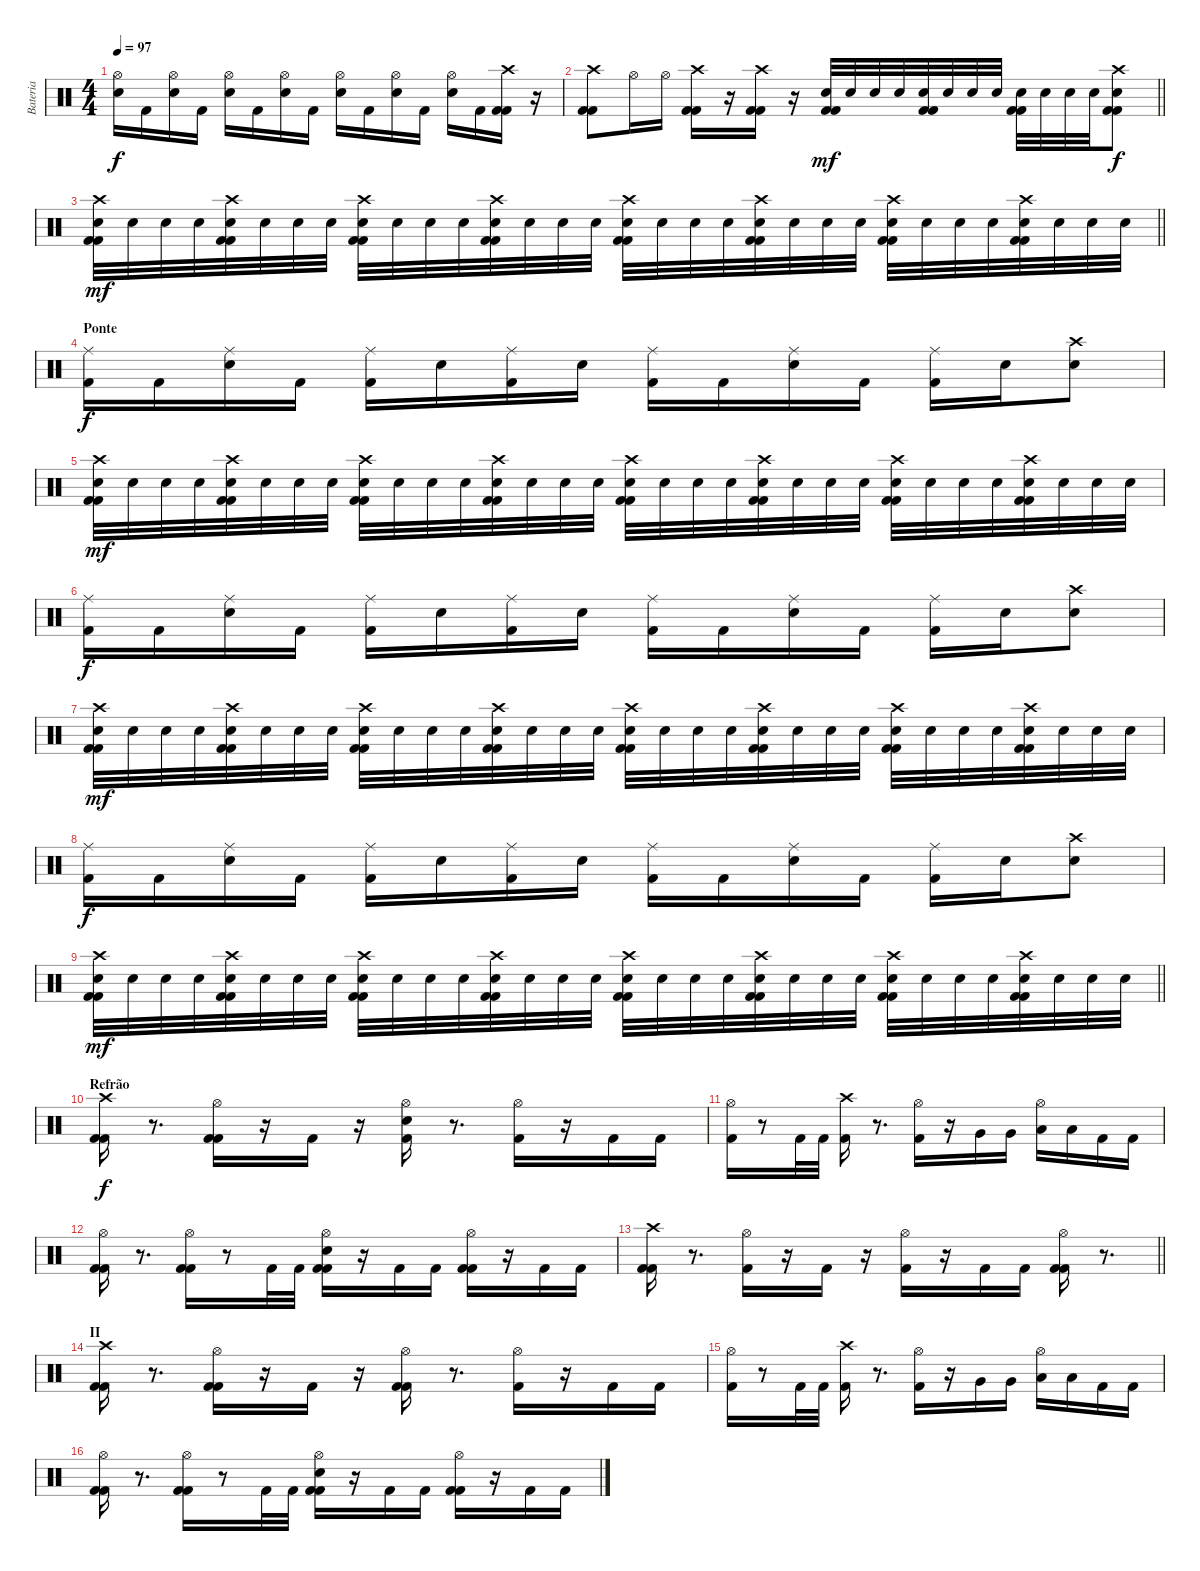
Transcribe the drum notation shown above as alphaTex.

\track ("Bateria" "Bateria") {instrument percussion}
\staff {score}
\articulation defaults
\ts (4 4)
\tempo 97
\clef neutral
\ks c
("Hi-Hat (open)" "Electric Snare (hit)").16{dy f} "Kick (hit) 2".16 ("Hi-Hat (open)" "Electric Snare (hit)").16 "Kick (hit) 2".16 ("Hi-Hat (open)" "Electric Snare (hit)").16 "Kick (hit) 2".16 ("Hi-Hat (open)" "Electric Snare (hit)").16 "Kick (hit) 2".16 ("Hi-Hat (open)" "Electric Snare (hit)").16 "Kick (hit) 2".16 ("Hi-Hat (open)" "Electric Snare (hit)").16 "Kick (hit) 2".16 ("Hi-Hat (open)" "Electric Snare (hit)").16 "Kick (hit) 2".16 ("Crash high (hit)" "Kick (hit) 2" "Kick (hit) 2").16 r.16 |
\barLineRight lightlight
("Crash high (hit)" "Kick (hit) 2" "Kick (hit) 2").8 "Hi-Hat (open)".16 "Hi-Hat (open)".16 ("Crash high (hit)" "Kick (hit) 2" "Kick (hit) 2").16 r.16 ("Crash high (hit)" "Kick (hit) 2" "Kick (hit) 2").16 r.16 ("Electric Snare (hit)" "Kick (hit) 2" "Kick (hit) 2").32{dy mf} "Electric Snare (hit)".32 "Electric Snare (hit)".32 "Electric Snare (hit)".32 ("Electric Snare (hit)" "Kick (hit) 2" "Kick (hit) 2").32 "Electric Snare (hit)".32 "Electric Snare (hit)".32 "Electric Snare (hit)".32 ("Electric Snare (hit)" "Kick (hit) 2" "Kick (hit) 2").32 "Electric Snare (hit)".32 "Electric Snare (hit)".32 "Electric Snare (hit)".32 ("Crash high (hit)" "Electric Snare (hit)" "Kick (hit) 2" "Kick (hit) 2").8{dy f} |
\barLineRight lightlight
("Crash high (hit)" "Electric Snare (hit)" "Kick (hit) 2" "Kick (hit) 2").32{dy mf} "Electric Snare (hit)".32 "Electric Snare (hit)".32 "Electric Snare (hit)".32 ("Crash high (hit)" "Electric Snare (hit)" "Kick (hit) 2" "Kick (hit) 2").32 "Electric Snare (hit)".32 "Electric Snare (hit)".32 "Electric Snare (hit)".32 ("Crash high (hit)" "Electric Snare (hit)" "Kick (hit) 2" "Kick (hit) 2").32 "Electric Snare (hit)".32 "Electric Snare (hit)".32 "Electric Snare (hit)".32 ("Crash high (hit)" "Electric Snare (hit)" "Kick (hit) 2" "Kick (hit) 2").32 "Electric Snare (hit)".32 "Electric Snare (hit)".32 "Electric Snare (hit)".32 ("Crash high (hit)" "Electric Snare (hit)" "Kick (hit) 2" "Kick (hit) 2").32 "Electric Snare (hit)".32 "Electric Snare (hit)".32 "Electric Snare (hit)".32 ("Crash high (hit)" "Electric Snare (hit)" "Kick (hit) 2" "Kick (hit) 2").32 "Electric Snare (hit)".32 "Electric Snare (hit)".32 "Electric Snare (hit)".32 ("Crash high (hit)" "Electric Snare (hit)" "Kick (hit) 2" "Kick (hit) 2").32 "Electric Snare (hit)".32 "Electric Snare (hit)".32 "Electric Snare (hit)".32 ("Crash high (hit)" "Electric Snare (hit)" "Kick (hit) 2" "Kick (hit) 2").32 "Electric Snare (hit)".32 "Electric Snare (hit)".32 "Electric Snare (hit)".32 |
\section ("" "Ponte")
("Ride (middle)" "Kick (hit) 2").16{dy f} "Kick (hit) 2".16 ("Ride (middle)" "Electric Snare (hit)").16 "Kick (hit) 2".16 ("Ride (middle)" "Kick (hit) 2").16 "Electric Snare (hit)".16 ("Ride (middle)" "Kick (hit) 2").16 "Electric Snare (hit)".16 ("Ride (middle)" "Kick (hit) 2").16 "Kick (hit) 2".16 ("Ride (middle)" "Electric Snare (hit)").16 "Kick (hit) 2".16 ("Ride (middle)" "Kick (hit) 2").16 "Electric Snare (hit)".16 ("Crash high (hit)" "Electric Snare (hit)").8 |
("Crash high (hit)" "Electric Snare (hit)" "Kick (hit) 2" "Kick (hit) 2").32{dy mf} "Electric Snare (hit)".32 "Electric Snare (hit)".32 "Electric Snare (hit)".32 ("Crash high (hit)" "Electric Snare (hit)" "Kick (hit) 2" "Kick (hit) 2").32 "Electric Snare (hit)".32 "Electric Snare (hit)".32 "Electric Snare (hit)".32 ("Crash high (hit)" "Electric Snare (hit)" "Kick (hit) 2" "Kick (hit) 2").32 "Electric Snare (hit)".32 "Electric Snare (hit)".32 "Electric Snare (hit)".32 ("Crash high (hit)" "Electric Snare (hit)" "Kick (hit) 2" "Kick (hit) 2").32 "Electric Snare (hit)".32 "Electric Snare (hit)".32 "Electric Snare (hit)".32 ("Crash high (hit)" "Electric Snare (hit)" "Kick (hit) 2" "Kick (hit) 2").32 "Electric Snare (hit)".32 "Electric Snare (hit)".32 "Electric Snare (hit)".32 ("Crash high (hit)" "Electric Snare (hit)" "Kick (hit) 2" "Kick (hit) 2").32 "Electric Snare (hit)".32 "Electric Snare (hit)".32 "Electric Snare (hit)".32 ("Crash high (hit)" "Electric Snare (hit)" "Kick (hit) 2" "Kick (hit) 2").32 "Electric Snare (hit)".32 "Electric Snare (hit)".32 "Electric Snare (hit)".32 ("Crash high (hit)" "Electric Snare (hit)" "Kick (hit) 2" "Kick (hit) 2").32 "Electric Snare (hit)".32 "Electric Snare (hit)".32 "Electric Snare (hit)".32 |
("Ride (middle)" "Kick (hit) 2").16{dy f} "Kick (hit) 2".16 ("Ride (middle)" "Electric Snare (hit)").16 "Kick (hit) 2".16 ("Ride (middle)" "Kick (hit) 2").16 "Electric Snare (hit)".16 ("Ride (middle)" "Kick (hit) 2").16 "Electric Snare (hit)".16 ("Ride (middle)" "Kick (hit) 2").16 "Kick (hit) 2".16 ("Ride (middle)" "Electric Snare (hit)").16 "Kick (hit) 2".16 ("Ride (middle)" "Kick (hit) 2").16 "Electric Snare (hit)".16 ("Crash high (hit)" "Electric Snare (hit)").8 |
("Crash high (hit)" "Electric Snare (hit)" "Kick (hit) 2" "Kick (hit) 2").32{dy mf} "Electric Snare (hit)".32 "Electric Snare (hit)".32 "Electric Snare (hit)".32 ("Crash high (hit)" "Electric Snare (hit)" "Kick (hit) 2" "Kick (hit) 2").32 "Electric Snare (hit)".32 "Electric Snare (hit)".32 "Electric Snare (hit)".32 ("Crash high (hit)" "Electric Snare (hit)" "Kick (hit) 2" "Kick (hit) 2").32 "Electric Snare (hit)".32 "Electric Snare (hit)".32 "Electric Snare (hit)".32 ("Crash high (hit)" "Electric Snare (hit)" "Kick (hit) 2" "Kick (hit) 2").32 "Electric Snare (hit)".32 "Electric Snare (hit)".32 "Electric Snare (hit)".32 ("Crash high (hit)" "Electric Snare (hit)" "Kick (hit) 2" "Kick (hit) 2").32 "Electric Snare (hit)".32 "Electric Snare (hit)".32 "Electric Snare (hit)".32 ("Crash high (hit)" "Electric Snare (hit)" "Kick (hit) 2" "Kick (hit) 2").32 "Electric Snare (hit)".32 "Electric Snare (hit)".32 "Electric Snare (hit)".32 ("Crash high (hit)" "Electric Snare (hit)" "Kick (hit) 2" "Kick (hit) 2").32 "Electric Snare (hit)".32 "Electric Snare (hit)".32 "Electric Snare (hit)".32 ("Crash high (hit)" "Electric Snare (hit)" "Kick (hit) 2" "Kick (hit) 2").32 "Electric Snare (hit)".32 "Electric Snare (hit)".32 "Electric Snare (hit)".32 |
("Ride (middle)" "Kick (hit) 2").16{dy f} "Kick (hit) 2".16 ("Ride (middle)" "Electric Snare (hit)").16 "Kick (hit) 2".16 ("Ride (middle)" "Kick (hit) 2").16 "Electric Snare (hit)".16 ("Ride (middle)" "Kick (hit) 2").16 "Electric Snare (hit)".16 ("Ride (middle)" "Kick (hit) 2").16 "Kick (hit) 2".16 ("Ride (middle)" "Electric Snare (hit)").16 "Kick (hit) 2".16 ("Ride (middle)" "Kick (hit) 2").16 "Electric Snare (hit)".16 ("Crash high (hit)" "Electric Snare (hit)").8 |
\barLineRight lightlight
("Crash high (hit)" "Electric Snare (hit)" "Kick (hit) 2" "Kick (hit) 2").32{dy mf} "Electric Snare (hit)".32 "Electric Snare (hit)".32 "Electric Snare (hit)".32 ("Crash high (hit)" "Electric Snare (hit)" "Kick (hit) 2" "Kick (hit) 2").32 "Electric Snare (hit)".32 "Electric Snare (hit)".32 "Electric Snare (hit)".32 ("Crash high (hit)" "Electric Snare (hit)" "Kick (hit) 2" "Kick (hit) 2").32 "Electric Snare (hit)".32 "Electric Snare (hit)".32 "Electric Snare (hit)".32 ("Crash high (hit)" "Electric Snare (hit)" "Kick (hit) 2" "Kick (hit) 2").32 "Electric Snare (hit)".32 "Electric Snare (hit)".32 "Electric Snare (hit)".32 ("Crash high (hit)" "Electric Snare (hit)" "Kick (hit) 2" "Kick (hit) 2").32 "Electric Snare (hit)".32 "Electric Snare (hit)".32 "Electric Snare (hit)".32 ("Crash high (hit)" "Electric Snare (hit)" "Kick (hit) 2" "Kick (hit) 2").32 "Electric Snare (hit)".32 "Electric Snare (hit)".32 "Electric Snare (hit)".32 ("Crash high (hit)" "Electric Snare (hit)" "Kick (hit) 2" "Kick (hit) 2").32 "Electric Snare (hit)".32 "Electric Snare (hit)".32 "Electric Snare (hit)".32 ("Crash high (hit)" "Electric Snare (hit)" "Kick (hit) 2" "Kick (hit) 2").32 "Electric Snare (hit)".32 "Electric Snare (hit)".32 "Electric Snare (hit)".32 |
\section ("" "Refrão")
("Crash high (hit)" "Kick (hit) 2" "Kick (hit) 2").16{dy f} r.8{d} ("Hi-Hat (open)" "Kick (hit) 2" "Kick (hit) 2").16 r.16 "Kick (hit) 2".16 r.16 ("Hi-Hat (open)" "Electric Snare (hit)" "Kick (hit) 2").16 r.8{d} ("Hi-Hat (open)" "Kick (hit) 2").16 r.16 "Kick (hit) 2".16 "Kick (hit) 2".16 |
("Hi-Hat (open)" "Kick (hit) 2").16 r.8 "Kick (hit) 2".32 "Kick (hit) 2".32 ("Crash high (hit)" "Kick (hit) 2").16 r.8{d} ("Hi-Hat (open)" "Kick (hit) 2").16 r.16 "Very Low Tom (hit)".16 "Very Low Tom (hit)".16 ("Hi-Hat (open)" "Low Floor Tom (hit)").16 "Low Floor Tom (hit)".16 "Kick (hit) 2".16 "Kick (hit) 2".16 |
("Hi-Hat (open)" "Kick (hit) 2" "Kick (hit) 2").16 r.8{d} ("Hi-Hat (open)" "Kick (hit) 2" "Kick (hit) 2").16 r.8 "Kick (hit) 2".32 "Kick (hit) 2".32 ("Hi-Hat (open)" "Electric Snare (hit)" "Kick (hit) 2" "Kick (hit) 2").16 r.16 "Kick (hit) 2".16 "Kick (hit) 2".16 ("Hi-Hat (open)" "Kick (hit) 2" "Kick (hit) 2").16 r.16 "Kick (hit) 2".16 "Kick (hit) 2".16 |
\barLineRight lightlight
("Crash high (hit)" "Kick (hit) 2" "Kick (hit) 2").16 r.8{d} ("Hi-Hat (open)" "Kick (hit) 2").16 r.16 "Kick (hit) 2".16 r.16 ("Hi-Hat (open)" "Kick (hit) 2").16 r.16 "Kick (hit) 2".16 "Kick (hit) 2".16 ("Hi-Hat (open)" "Kick (hit) 2" "Kick (hit) 2").16 r.8{d} |
\section ("" "II")
("Crash high (hit)" "Kick (hit) 2" "Kick (hit) 2").16 r.8{d} ("Hi-Hat (open)" "Kick (hit) 2" "Kick (hit) 2").16 r.16 "Kick (hit) 2".16 r.16 ("Hi-Hat (open)" "Kick (hit) 2" "Kick (hit) 2").16 r.8{d} ("Hi-Hat (open)" "Kick (hit) 2").16 r.16 "Kick (hit) 2".16 "Kick (hit) 2".16 |
("Hi-Hat (open)" "Kick (hit) 2").16 r.8 "Kick (hit) 2".32 "Kick (hit) 2".32 ("Crash high (hit)" "Kick (hit) 2").16 r.8{d} ("Hi-Hat (open)" "Kick (hit) 2").16 r.16 "Very Low Tom (hit)".16 "Very Low Tom (hit)".16 ("Hi-Hat (open)" "Low Floor Tom (hit)").16 "Low Floor Tom (hit)".16 "Kick (hit) 2".16 "Kick (hit) 2".16 |
("Hi-Hat (open)" "Kick (hit) 2" "Kick (hit) 2").16 r.8{d} ("Hi-Hat (open)" "Kick (hit) 2" "Kick (hit) 2").16 r.8 "Kick (hit) 2".32 "Kick (hit) 2".32 ("Hi-Hat (open)" "Electric Snare (hit)" "Kick (hit) 2" "Kick (hit) 2").16 r.16 "Kick (hit) 2".16 "Kick (hit) 2".16 ("Hi-Hat (open)" "Kick (hit) 2" "Kick (hit) 2").16 r.16 "Kick (hit) 2".16 "Kick (hit) 2".16
